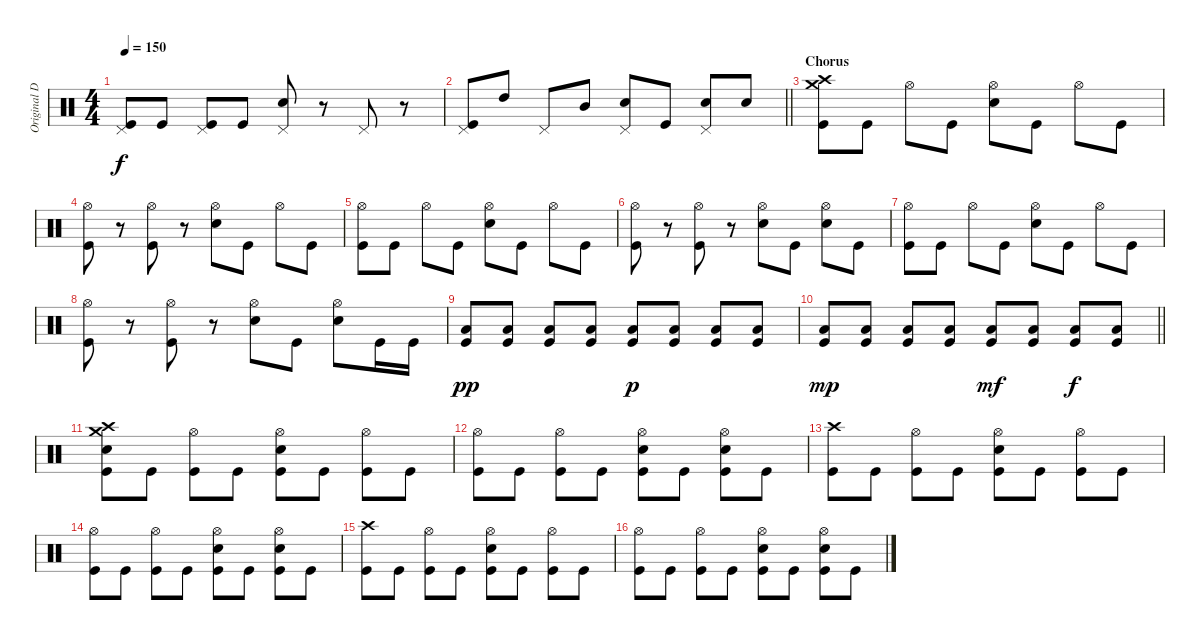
\track ("Original Drums" "Original D") {instrument percussion}
\staff {score}
\articulation defaults
\ts (4 4)
\tempo 150
\clef neutral
\ks c
("Pedal Hi-Hat (hit)" "Kick (hit)").8{dy f} "Kick (hit)".8 ("Pedal Hi-Hat (hit)" "Kick (hit)").8 "Kick (hit)".8 ("Pedal Hi-Hat (hit)" "Snare (hit) 2").8 r.8 "Pedal Hi-Hat (hit)".8 r.8 |
\barLineRight lightlight
("Pedal Hi-Hat (hit)" "Kick (hit)").8 "High Tom (hit)".8 "Pedal Hi-Hat (hit)".8 "Mid Tom (hit)".8 ("Pedal Hi-Hat (hit)" "Snare (hit) 2").8 "Kick (hit)".8 ("Pedal Hi-Hat (hit)" "Snare (hit) 2").8 "Snare (hit) 2".8 |
\section ("" "Chorus")
("Crash high (hit)" "Crash medium (hit)" "Kick (hit)").8 "Kick (hit)".8 "Hi-Hat (open)".8 "Kick (hit)".8 ("Hi-Hat (open)" "Snare (hit) 2").8 "Kick (hit)".8 "Hi-Hat (open)".8 "Kick (hit)".8 |
("Hi-Hat (open)" "Kick (hit)").8 r.8 ("Hi-Hat (open)" "Kick (hit)").8 r.8 ("Hi-Hat (open)" "Snare (hit) 2").8 "Kick (hit)".8 "Hi-Hat (open)".8 "Kick (hit)".8 |
("Hi-Hat (open)" "Kick (hit)").8 "Kick (hit)".8 "Hi-Hat (open)".8 "Kick (hit)".8 ("Hi-Hat (open)" "Snare (hit) 2").8 "Kick (hit)".8 "Hi-Hat (open)".8 "Kick (hit)".8 |
("Hi-Hat (open)" "Kick (hit)").8 r.8 ("Hi-Hat (open)" "Kick (hit)").8 r.8 ("Hi-Hat (open)" "Snare (hit) 2").8 "Kick (hit)".8 ("Hi-Hat (open)" "Snare (hit) 2").8 "Kick (hit)".8 |
("Hi-Hat (open)" "Kick (hit)").8 "Kick (hit)".8 "Hi-Hat (open)".8 "Kick (hit)".8 ("Hi-Hat (open)" "Snare (hit) 2").8 "Kick (hit)".8 "Hi-Hat (open)".8 "Kick (hit)".8 |
("Hi-Hat (open)" "Kick (hit)").8 r.8 ("Hi-Hat (open)" "Kick (hit)").8 r.8 ("Hi-Hat (open)" "Snare (hit) 2").8 "Kick (hit)".8 ("Hi-Hat (open)" "Snare (hit) 2").8 "Kick (hit)".16 "Kick (hit)".16 |
("Low Floor Tom (hit)" "Kick (hit)").8{dy pp} ("Low Floor Tom (hit)" "Kick (hit)").8 ("Low Floor Tom (hit)" "Kick (hit)").8 ("Low Floor Tom (hit)" "Kick (hit)").8 ("Low Floor Tom (hit)" "Kick (hit)").8{dy p} ("Low Floor Tom (hit)" "Kick (hit)").8 ("Low Floor Tom (hit)" "Kick (hit)").8 ("Low Floor Tom (hit)" "Kick (hit)").8 |
\barLineRight lightlight
("Low Floor Tom (hit)" "Kick (hit)").8{dy mp} ("Low Floor Tom (hit)" "Kick (hit)").8 ("Low Floor Tom (hit)" "Kick (hit)").8 ("Low Floor Tom (hit)" "Kick (hit)").8 ("Low Floor Tom (hit)" "Kick (hit)").8{dy mf} ("Low Floor Tom (hit)" "Kick (hit)").8 ("Low Floor Tom (hit)" "Kick (hit)").8{dy f} ("Low Floor Tom (hit)" "Kick (hit)").8 |
\section ("" "")
("Crash high (hit)" "Crash medium (hit)" "Snare (hit) 2" "Kick (hit)").8 "Kick (hit)".8 ("Hi-Hat (open)" "Kick (hit)").8 "Kick (hit)".8 ("Hi-Hat (open)" "Snare (hit) 2" "Kick (hit)").8 "Kick (hit)".8 ("Hi-Hat (open)" "Kick (hit)").8 "Kick (hit)".8 |
("Hi-Hat (open)" "Kick (hit)").8 "Kick (hit)".8 ("Hi-Hat (open)" "Kick (hit)").8 "Kick (hit)".8 ("Hi-Hat (open)" "Snare (hit) 2" "Kick (hit)").8 "Kick (hit)".8 ("Hi-Hat (open)" "Snare (hit) 2" "Kick (hit)").8 "Kick (hit)".8 |
("Crash high (hit)" "Kick (hit)").8 "Kick (hit)".8 ("Hi-Hat (open)" "Kick (hit)").8 "Kick (hit)".8 ("Hi-Hat (open)" "Snare (hit) 2" "Kick (hit)").8 "Kick (hit)".8 ("Hi-Hat (open)" "Kick (hit)").8 "Kick (hit)".8 |
("Hi-Hat (open)" "Kick (hit)").8 "Kick (hit)".8 ("Hi-Hat (open)" "Kick (hit)").8 "Kick (hit)".8 ("Hi-Hat (open)" "Snare (hit) 2" "Kick (hit)").8 "Kick (hit)".8 ("Hi-Hat (open)" "Snare (hit) 2" "Kick (hit)").8 "Kick (hit)".8 |
("Crash high (hit)" "Kick (hit)").8 "Kick (hit)".8 ("Hi-Hat (open)" "Kick (hit)").8 "Kick (hit)".8 ("Hi-Hat (open)" "Snare (hit) 2" "Kick (hit)").8 "Kick (hit)".8 ("Hi-Hat (open)" "Kick (hit)").8 "Kick (hit)".8 |
("Hi-Hat (open)" "Kick (hit)").8 "Kick (hit)".8 ("Hi-Hat (open)" "Kick (hit)").8 "Kick (hit)".8 ("Hi-Hat (open)" "Snare (hit) 2" "Kick (hit)").8 "Kick (hit)".8 ("Hi-Hat (open)" "Snare (hit) 2" "Kick (hit)").8 "Kick (hit)".8
